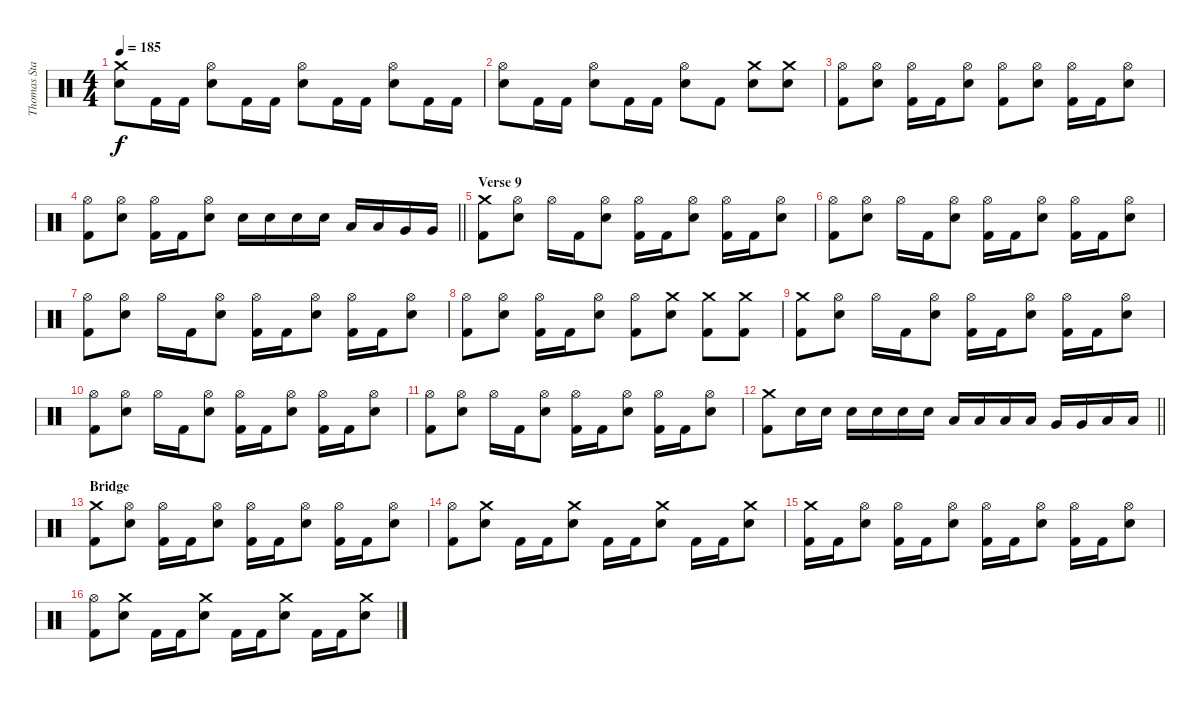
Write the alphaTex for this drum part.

\track ("Thomas Stauch" "Thomas Sta") {instrument percussion}
\staff {score}
\articulation defaults
\ts (4 4)
\tempo 185
\clef neutral
\ks c
("Crash medium (hit)" "Electric Snare (hit)").8{dy f} "Kick (hit) 2".16 "Kick (hit) 2".16 ("Hi-Hat (open)" "Electric Snare (hit)").8 "Kick (hit) 2".16 "Kick (hit) 2".16 ("Hi-Hat (open)" "Electric Snare (hit)").8 "Kick (hit) 2".16 "Kick (hit) 2".16 ("Hi-Hat (open)" "Electric Snare (hit)").8 "Kick (hit) 2".16 "Kick (hit) 2".16 |
("Hi-Hat (open)" "Electric Snare (hit)").8 "Kick (hit) 2".16 "Kick (hit) 2".16 ("Hi-Hat (open)" "Electric Snare (hit)").8 "Kick (hit) 2".16 "Kick (hit) 2".16 ("Hi-Hat (open)" "Electric Snare (hit)").8 "Kick (hit) 2".8 ("Crash medium (hit)" "Electric Snare (hit)").8 ("Crash medium (hit)" "Electric Snare (hit)").8 |
("Hi-Hat (open)" "Kick (hit) 2").8 ("Hi-Hat (open)" "Electric Snare (hit)").8 ("Hi-Hat (open)" "Kick (hit) 2").16 "Kick (hit) 2".16 ("Hi-Hat (open)" "Electric Snare (hit)").8 ("Hi-Hat (open)" "Kick (hit) 2").8 ("Hi-Hat (open)" "Electric Snare (hit)").8 ("Hi-Hat (open)" "Kick (hit) 2").16 "Kick (hit) 2".16 ("Hi-Hat (open)" "Electric Snare (hit)").8 |
\barLineRight lightlight
("Hi-Hat (open)" "Kick (hit) 2").8 ("Hi-Hat (open)" "Electric Snare (hit)").8 ("Hi-Hat (open)" "Kick (hit) 2").16 "Kick (hit) 2".16 ("Hi-Hat (open)" "Electric Snare (hit)").8 "Electric Snare (hit)".16 "Electric Snare (hit)".16 "Electric Snare (hit)".16 "Electric Snare (hit)".16 "Low Tom (hit)".16 "Low Tom (hit)".16 "Very Low Tom (hit)".16 "Very Low Tom (hit)".16 |
\section ("" "Verse 9")
("Crash medium (hit)" "Kick (hit) 2").8 ("Hi-Hat (open)" "Electric Snare (hit)").8 "Hi-Hat (open)".16 "Kick (hit) 2".16 ("Hi-Hat (open)" "Electric Snare (hit)").8 ("Hi-Hat (open)" "Kick (hit) 2").16 "Kick (hit) 2".16 ("Hi-Hat (open)" "Electric Snare (hit)").8 ("Hi-Hat (open)" "Kick (hit) 2").16 "Kick (hit) 2".16 ("Hi-Hat (open)" "Electric Snare (hit)").8 |
("Hi-Hat (open)" "Kick (hit) 2").8 ("Hi-Hat (open)" "Electric Snare (hit)").8 "Hi-Hat (open)".16 "Kick (hit) 2".16 ("Hi-Hat (open)" "Electric Snare (hit)").8 ("Hi-Hat (open)" "Kick (hit) 2").16 "Kick (hit) 2".16 ("Hi-Hat (open)" "Electric Snare (hit)").8 ("Hi-Hat (open)" "Kick (hit) 2").16 "Kick (hit) 2".16 ("Hi-Hat (open)" "Electric Snare (hit)").8 |
("Hi-Hat (open)" "Kick (hit) 2").8 ("Hi-Hat (open)" "Electric Snare (hit)").8 "Hi-Hat (open)".16 "Kick (hit) 2".16 ("Hi-Hat (open)" "Electric Snare (hit)").8 ("Hi-Hat (open)" "Kick (hit) 2").16 "Kick (hit) 2".16 ("Hi-Hat (open)" "Electric Snare (hit)").8 ("Hi-Hat (open)" "Kick (hit) 2").16 "Kick (hit) 2".16 ("Hi-Hat (open)" "Electric Snare (hit)").8 |
("Hi-Hat (open)" "Kick (hit) 2").8 ("Hi-Hat (open)" "Electric Snare (hit)").8 ("Hi-Hat (open)" "Kick (hit) 2").16 "Kick (hit) 2".16 ("Hi-Hat (open)" "Electric Snare (hit)").8 ("Hi-Hat (open)" "Kick (hit) 2").8 ("Crash medium (hit)" "Electric Snare (hit)").8 ("Crash medium (hit)" "Kick (hit) 2").8 ("Crash medium (hit)" "Kick (hit) 2").8 |
("Crash medium (hit)" "Kick (hit) 2").8 ("Hi-Hat (open)" "Electric Snare (hit)").8 "Hi-Hat (open)".16 "Kick (hit) 2".16 ("Hi-Hat (open)" "Electric Snare (hit)").8 ("Hi-Hat (open)" "Kick (hit) 2").16 "Kick (hit) 2".16 ("Hi-Hat (open)" "Electric Snare (hit)").8 ("Hi-Hat (open)" "Kick (hit) 2").16 "Kick (hit) 2".16 ("Hi-Hat (open)" "Electric Snare (hit)").8 |
("Hi-Hat (open)" "Kick (hit) 2").8 ("Hi-Hat (open)" "Electric Snare (hit)").8 "Hi-Hat (open)".16 "Kick (hit) 2".16 ("Hi-Hat (open)" "Electric Snare (hit)").8 ("Hi-Hat (open)" "Kick (hit) 2").16 "Kick (hit) 2".16 ("Hi-Hat (open)" "Electric Snare (hit)").8 ("Hi-Hat (open)" "Kick (hit) 2").16 "Kick (hit) 2".16 ("Hi-Hat (open)" "Electric Snare (hit)").8 |
("Hi-Hat (open)" "Kick (hit) 2").8 ("Hi-Hat (open)" "Electric Snare (hit)").8 "Hi-Hat (open)".16 "Kick (hit) 2".16 ("Hi-Hat (open)" "Electric Snare (hit)").8 ("Hi-Hat (open)" "Kick (hit) 2").16 "Kick (hit) 2".16 ("Hi-Hat (open)" "Electric Snare (hit)").8 ("Hi-Hat (open)" "Kick (hit) 2").16 "Kick (hit) 2".16 ("Hi-Hat (open)" "Electric Snare (hit)").8 |
\barLineRight lightlight
("Crash medium (hit)" "Kick (hit) 2").8 "Electric Snare (hit)".16 "Electric Snare (hit)".16 "Electric Snare (hit)".16 "Electric Snare (hit)".16 "Electric Snare (hit)".16 "Electric Snare (hit)".16 "Low Tom (hit)".16 "Low Tom (hit)".16 "Low Tom (hit)".16 "Low Tom (hit)".16 "Very Low Tom (hit)".16 "Very Low Tom (hit)".16 "Low Floor Tom (hit)".16 "Low Floor Tom (hit)".16 |
\section ("" "Bridge")
("Crash medium (hit)" "Kick (hit) 2").8 ("Hi-Hat (open)" "Electric Snare (hit)").8 ("Hi-Hat (open)" "Kick (hit) 2").16 "Kick (hit) 2".16 ("Hi-Hat (open)" "Electric Snare (hit)").8 ("Hi-Hat (open)" "Kick (hit) 2").16 "Kick (hit) 2".16 ("Hi-Hat (open)" "Electric Snare (hit)").8 ("Hi-Hat (open)" "Kick (hit) 2").16 "Kick (hit) 2".16 ("Hi-Hat (open)" "Electric Snare (hit)").8 |
("Hi-Hat (open)" "Kick (hit) 2").8 ("Crash medium (hit)" "Electric Snare (hit)").8 "Kick (hit) 2".16 "Kick (hit) 2".16 ("Crash medium (hit)" "Electric Snare (hit)").8 "Kick (hit) 2".16 "Kick (hit) 2".16 ("Crash medium (hit)" "Electric Snare (hit)").8 "Kick (hit) 2".16 "Kick (hit) 2".16 ("Crash medium (hit)" "Electric Snare (hit)").8 |
("Crash medium (hit)" "Kick (hit) 2").16 "Kick (hit) 2".16 ("Hi-Hat (open)" "Electric Snare (hit)").8 ("Hi-Hat (open)" "Kick (hit) 2").16 "Kick (hit) 2".16 ("Hi-Hat (open)" "Electric Snare (hit)").8 ("Hi-Hat (open)" "Kick (hit) 2").16 "Kick (hit) 2".16 ("Hi-Hat (open)" "Electric Snare (hit)").8 ("Hi-Hat (open)" "Kick (hit) 2").16 "Kick (hit) 2".16 ("Hi-Hat (open)" "Electric Snare (hit)").8 |
("Hi-Hat (open)" "Kick (hit) 2").8 ("Crash medium (hit)" "Electric Snare (hit)").8 "Kick (hit) 2".16 "Kick (hit) 2".16 ("Crash medium (hit)" "Electric Snare (hit)").8 "Kick (hit) 2".16 "Kick (hit) 2".16 ("Crash medium (hit)" "Electric Snare (hit)").8 "Kick (hit) 2".16 "Kick (hit) 2".16 ("Crash medium (hit)" "Electric Snare (hit)").8
